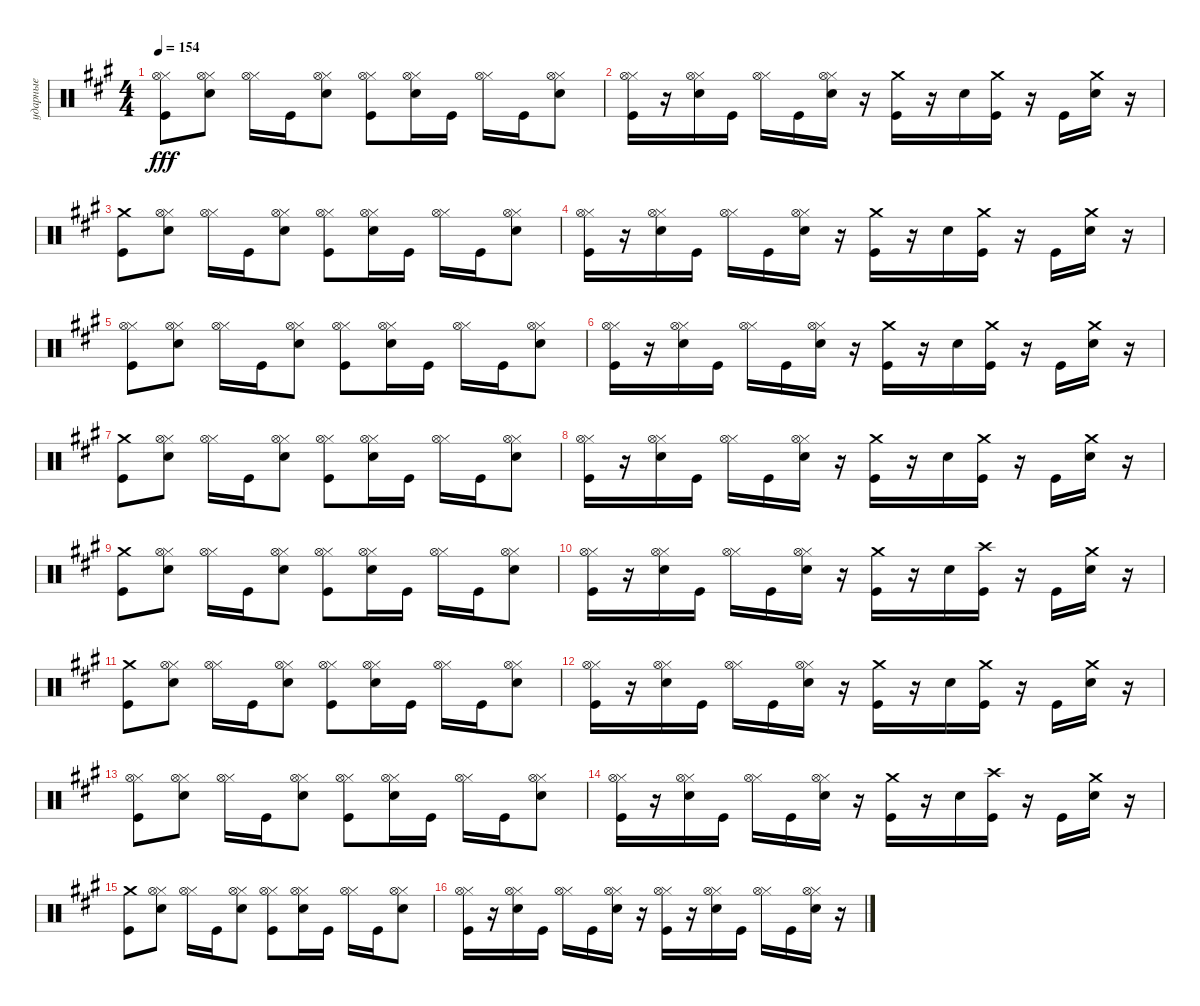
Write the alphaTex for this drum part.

\track ("ударные" "ударные") {instrument percussion}
\staff {score}
\articulation defaults
\ts (4 4)
\tempo 154
\clef neutral
\ks f#minor
("Hi-Hat (closed)" "Kick (hit)" "Hi-Hat (open)").8{dy fff} ("Snare (hit) 2" "Hi-Hat (closed)" "Hi-Hat (open)").8 ("Hi-Hat (closed)" "Hi-Hat (open)").16 "Kick (hit)".16 ("Snare (hit) 2" "Hi-Hat (closed)" "Hi-Hat (open)").8 ("Kick (hit)" "Hi-Hat (closed)" "Hi-Hat (open)").8 ("Snare (hit) 2" "Hi-Hat (closed)" "Hi-Hat (open)").16 "Kick (hit)".16 ("Hi-Hat (closed)" "Hi-Hat (open)").16 "Kick (hit)".16 ("Snare (hit) 2" "Hi-Hat (closed)" "Hi-Hat (open)").8 |
("Hi-Hat (closed)" "Kick (hit)" "Hi-Hat (open)").16 r.16 ("Hi-Hat (closed)" "Snare (hit) 2" "Hi-Hat (open)").16 "Kick (hit)".16 ("Hi-Hat (closed)" "Hi-Hat (open)").16 "Kick (hit)".16 ("Hi-Hat (closed)" "Snare (hit) 2" "Hi-Hat (open)").16 r.16 ("Crash medium (hit)" "Kick (hit)").16 r.16 "Snare (hit) 2".16 ("Crash medium (hit)" "Kick (hit)").16 r.16 "Kick (hit)".16 ("Crash medium (hit)" "Snare (hit) 2").16 r.16 |
("Crash medium (hit)" "Kick (hit)").8 ("Hi-Hat (closed)" "Snare (hit) 2" "Hi-Hat (open)").8 ("Hi-Hat (closed)" "Hi-Hat (open)").16 "Kick (hit)".16 ("Snare (hit) 2" "Hi-Hat (closed)" "Hi-Hat (open)").8 ("Kick (hit)" "Hi-Hat (closed)" "Hi-Hat (open)").8 ("Snare (hit) 2" "Hi-Hat (closed)" "Hi-Hat (open)").16 "Kick (hit)".16 ("Hi-Hat (closed)" "Hi-Hat (open)").16 "Kick (hit)".16 ("Snare (hit) 2" "Hi-Hat (closed)" "Hi-Hat (open)").8 |
("Hi-Hat (closed)" "Kick (hit)" "Hi-Hat (open)").16 r.16 ("Hi-Hat (closed)" "Snare (hit) 2" "Hi-Hat (open)").16 "Kick (hit)".16 ("Hi-Hat (closed)" "Hi-Hat (open)").16 "Kick (hit)".16 ("Hi-Hat (closed)" "Snare (hit) 2" "Hi-Hat (open)").16 r.16 ("Crash medium (hit)" "Kick (hit)").16 r.16 "Snare (hit) 2".16 ("Crash medium (hit)" "Kick (hit)").16 r.16 "Kick (hit)".16 ("Crash medium (hit)" "Snare (hit) 2").16 r.16 |
("Hi-Hat (closed)" "Kick (hit)" "Hi-Hat (open)").8 ("Snare (hit) 2" "Hi-Hat (closed)" "Hi-Hat (open)").8 ("Hi-Hat (closed)" "Hi-Hat (open)").16 "Kick (hit)".16 ("Snare (hit) 2" "Hi-Hat (closed)" "Hi-Hat (open)").8 ("Kick (hit)" "Hi-Hat (closed)" "Hi-Hat (open)").8 ("Snare (hit) 2" "Hi-Hat (closed)" "Hi-Hat (open)").16 "Kick (hit)".16 ("Hi-Hat (closed)" "Hi-Hat (open)").16 "Kick (hit)".16 ("Snare (hit) 2" "Hi-Hat (closed)" "Hi-Hat (open)").8 |
("Hi-Hat (closed)" "Kick (hit)" "Hi-Hat (open)").16 r.16 ("Hi-Hat (closed)" "Snare (hit) 2" "Hi-Hat (open)").16 "Kick (hit)".16 ("Hi-Hat (closed)" "Hi-Hat (open)").16 "Kick (hit)".16 ("Hi-Hat (closed)" "Snare (hit) 2" "Hi-Hat (open)").16 r.16 ("Crash medium (hit)" "Kick (hit)").16 r.16 "Snare (hit) 2".16 ("Crash medium (hit)" "Kick (hit)").16 r.16 "Kick (hit)".16 ("Crash medium (hit)" "Snare (hit) 2").16 r.16 |
("Crash medium (hit)" "Kick (hit)").8 ("Snare (hit) 2" "Hi-Hat (closed)" "Hi-Hat (open)").8 ("Hi-Hat (closed)" "Hi-Hat (open)").16 "Kick (hit)".16 ("Snare (hit) 2" "Hi-Hat (closed)" "Hi-Hat (open)").8 ("Kick (hit)" "Hi-Hat (closed)" "Hi-Hat (open)").8 ("Snare (hit) 2" "Hi-Hat (closed)" "Hi-Hat (open)").16 "Kick (hit)".16 ("Hi-Hat (closed)" "Hi-Hat (open)").16 "Kick (hit)".16 ("Snare (hit) 2" "Hi-Hat (closed)" "Hi-Hat (open)").8 |
("Hi-Hat (closed)" "Kick (hit)" "Hi-Hat (open)").16 r.16 ("Hi-Hat (closed)" "Snare (hit) 2" "Hi-Hat (open)").16 "Kick (hit)".16 ("Hi-Hat (closed)" "Hi-Hat (open)").16 "Kick (hit)".16 ("Hi-Hat (closed)" "Snare (hit) 2" "Hi-Hat (open)").16 r.16 ("Crash medium (hit)" "Kick (hit)").16 r.16 "Snare (hit) 2".16 ("Crash medium (hit)" "Kick (hit)").16 r.16 "Kick (hit)".16 ("Crash medium (hit)" "Snare (hit) 2").16 r.16 |
("Crash medium (hit)" "Kick (hit)").8 ("Snare (hit) 2" "Hi-Hat (closed)" "Hi-Hat (open)").8 ("Hi-Hat (closed)" "Hi-Hat (open)").16 "Kick (hit)".16 ("Snare (hit) 2" "Hi-Hat (closed)" "Hi-Hat (open)").8 ("Kick (hit)" "Hi-Hat (closed)" "Hi-Hat (open)").8 ("Snare (hit) 2" "Hi-Hat (closed)" "Hi-Hat (open)").16 "Kick (hit)".16 ("Hi-Hat (closed)" "Hi-Hat (open)").16 "Kick (hit)".16 ("Snare (hit) 2" "Hi-Hat (closed)" "Hi-Hat (open)").8 |
("Hi-Hat (closed)" "Kick (hit)" "Hi-Hat (open)").16 r.16 ("Hi-Hat (closed)" "Snare (hit) 2" "Hi-Hat (open)").16 "Kick (hit)".16 ("Hi-Hat (closed)" "Hi-Hat (open)").16 "Kick (hit)".16 ("Hi-Hat (closed)" "Snare (hit) 2" "Hi-Hat (open)").16 r.16 ("Crash medium (hit)" "Kick (hit)").16 r.16 "Snare (hit) 2".16 ("Kick (hit)" "Crash high (hit)").16 r.16 "Kick (hit)".16 ("Crash medium (hit)" "Snare (hit) 2").16 r.16 |
("Crash medium (hit)" "Kick (hit)").8 ("Snare (hit) 2" "Hi-Hat (closed)" "Hi-Hat (open)").8 ("Hi-Hat (closed)" "Hi-Hat (open)").16 "Kick (hit)".16 ("Snare (hit) 2" "Hi-Hat (closed)" "Hi-Hat (open)").8 ("Kick (hit)" "Hi-Hat (closed)" "Hi-Hat (open)").8 ("Snare (hit) 2" "Hi-Hat (closed)" "Hi-Hat (open)").16 "Kick (hit)".16 ("Hi-Hat (closed)" "Hi-Hat (open)").16 "Kick (hit)".16 ("Snare (hit) 2" "Hi-Hat (closed)" "Hi-Hat (open)").8 |
("Hi-Hat (closed)" "Kick (hit)" "Hi-Hat (open)").16 r.16 ("Hi-Hat (closed)" "Snare (hit) 2" "Hi-Hat (open)").16 "Kick (hit)".16 ("Hi-Hat (closed)" "Hi-Hat (open)").16 "Kick (hit)".16 ("Hi-Hat (closed)" "Snare (hit) 2" "Hi-Hat (open)").16 r.16 ("Crash medium (hit)" "Kick (hit)").16 r.16 "Snare (hit) 2".16 ("Crash medium (hit)" "Kick (hit)").16 r.16 "Kick (hit)".16 ("Crash medium (hit)" "Snare (hit) 2").16 r.16 |
("Hi-Hat (closed)" "Kick (hit)" "Hi-Hat (open)").8 ("Snare (hit) 2" "Hi-Hat (closed)" "Hi-Hat (open)").8 ("Hi-Hat (closed)" "Hi-Hat (open)").16 "Kick (hit)".16 ("Snare (hit) 2" "Hi-Hat (closed)" "Hi-Hat (open)").8 ("Kick (hit)" "Hi-Hat (closed)" "Hi-Hat (open)").8 ("Snare (hit) 2" "Hi-Hat (closed)" "Hi-Hat (open)").16 "Kick (hit)".16 ("Hi-Hat (closed)" "Hi-Hat (open)").16 "Kick (hit)".16 ("Snare (hit) 2" "Hi-Hat (closed)" "Hi-Hat (open)").8 |
("Hi-Hat (closed)" "Kick (hit)" "Hi-Hat (open)").16 r.16 ("Hi-Hat (closed)" "Snare (hit) 2" "Hi-Hat (open)").16 "Kick (hit)".16 ("Hi-Hat (closed)" "Hi-Hat (open)").16 "Kick (hit)".16 ("Hi-Hat (closed)" "Snare (hit) 2" "Hi-Hat (open)").16 r.16 ("Crash medium (hit)" "Kick (hit)").16 r.16 "Snare (hit) 2".16 ("Kick (hit)" "Crash high (hit)").16 r.16 "Kick (hit)".16 ("Crash medium (hit)" "Snare (hit) 2").16 r.16 |
("Crash medium (hit)" "Kick (hit)").8 ("Snare (hit) 2" "Hi-Hat (closed)" "Hi-Hat (open)").8 ("Hi-Hat (closed)" "Hi-Hat (open)").16 "Kick (hit)".16 ("Snare (hit) 2" "Hi-Hat (closed)" "Hi-Hat (open)").8 ("Kick (hit)" "Hi-Hat (closed)" "Hi-Hat (open)").8 ("Snare (hit) 2" "Hi-Hat (closed)" "Hi-Hat (open)").16 "Kick (hit)".16 ("Hi-Hat (closed)" "Hi-Hat (open)").16 "Kick (hit)".16 ("Snare (hit) 2" "Hi-Hat (closed)" "Hi-Hat (open)").8 |
("Hi-Hat (closed)" "Kick (hit)" "Hi-Hat (open)").16 r.16 ("Hi-Hat (closed)" "Snare (hit) 2" "Hi-Hat (open)").16 "Kick (hit)".16 ("Hi-Hat (closed)" "Hi-Hat (open)").16 "Kick (hit)".16 ("Hi-Hat (closed)" "Snare (hit) 2" "Hi-Hat (open)").16 r.16 ("Hi-Hat (closed)" "Kick (hit)" "Hi-Hat (open)").16 r.16 ("Hi-Hat (closed)" "Snare (hit) 2" "Hi-Hat (open)").16 "Kick (hit)".16 ("Hi-Hat (closed)" "Hi-Hat (open)").16 "Kick (hit)".16 ("Hi-Hat (closed)" "Snare (hit) 2" "Hi-Hat (open)").16 r.16
